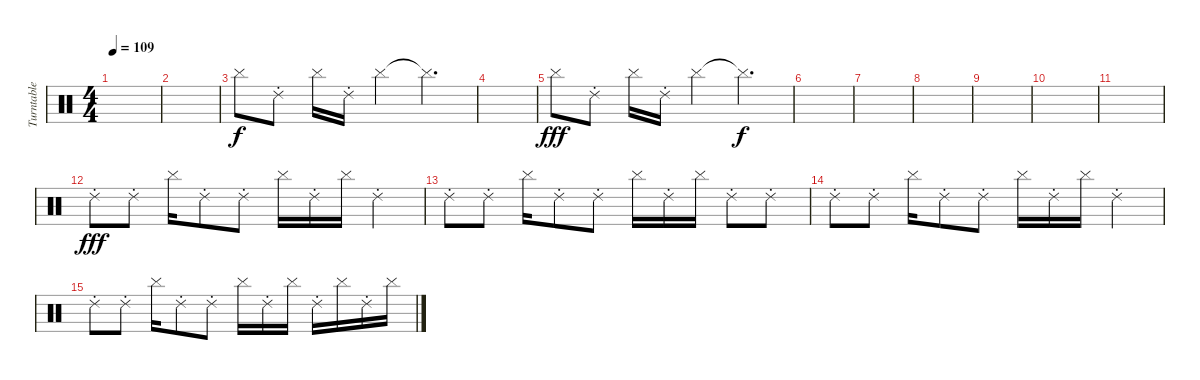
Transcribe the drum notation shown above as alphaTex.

\track ("Turntable" "Turntable") {instrument percussion}
\staff {score}
\articulation defaults
\ts (4 4)
\tempo 109
\clef neutral
\ks c
|
|
"Cymbal (hit)".8{volume 8} "Ride (choke) 2".8 "Cymbal (hit)".16 "Ride (choke) 2".16 "Cymbal (hit)".4 "Cymbal (hit)"{t}.4{d dy f} |
|
"Cymbal (hit)".8{dy fff volume 8} "Ride (choke) 2".8 "Cymbal (hit)".16 "Ride (choke) 2".16 "Cymbal (hit)".4 "Cymbal (hit)"{t}.4{d dy f} |
|
|
|
|
|
|
"Ride (choke) 2".8{dy fff volume 9} "Ride (choke) 2".8 "Cymbal (hit)".16 "Ride (choke) 2".8 "Ride (choke) 2".8 "Cymbal (hit)".16 "Ride (choke) 2".16 "Cymbal (hit)".16 "Ride (choke) 2".4 |
"Ride (choke) 2".8{volume 9} "Ride (choke) 2".8 "Cymbal (hit)".16 "Ride (choke) 2".8 "Ride (choke) 2".8 "Cymbal (hit)".16 "Ride (choke) 2".16 "Cymbal (hit)".16 "Ride (choke) 2".8 "Ride (choke) 2".8 |
"Ride (choke) 2".8{volume 9} "Ride (choke) 2".8 "Cymbal (hit)".16 "Ride (choke) 2".8 "Ride (choke) 2".8 "Cymbal (hit)".16 "Ride (choke) 2".16 "Cymbal (hit)".16 "Ride (choke) 2".4 |
"Ride (choke) 2".8{volume 9} "Ride (choke) 2".8 "Cymbal (hit)".16 "Ride (choke) 2".8 "Ride (choke) 2".8 "Cymbal (hit)".16 "Ride (choke) 2".16 "Cymbal (hit)".16 "Ride (choke) 2".16 "Cymbal (hit)".16 "Ride (choke) 2".16 "Cymbal (hit)".16
